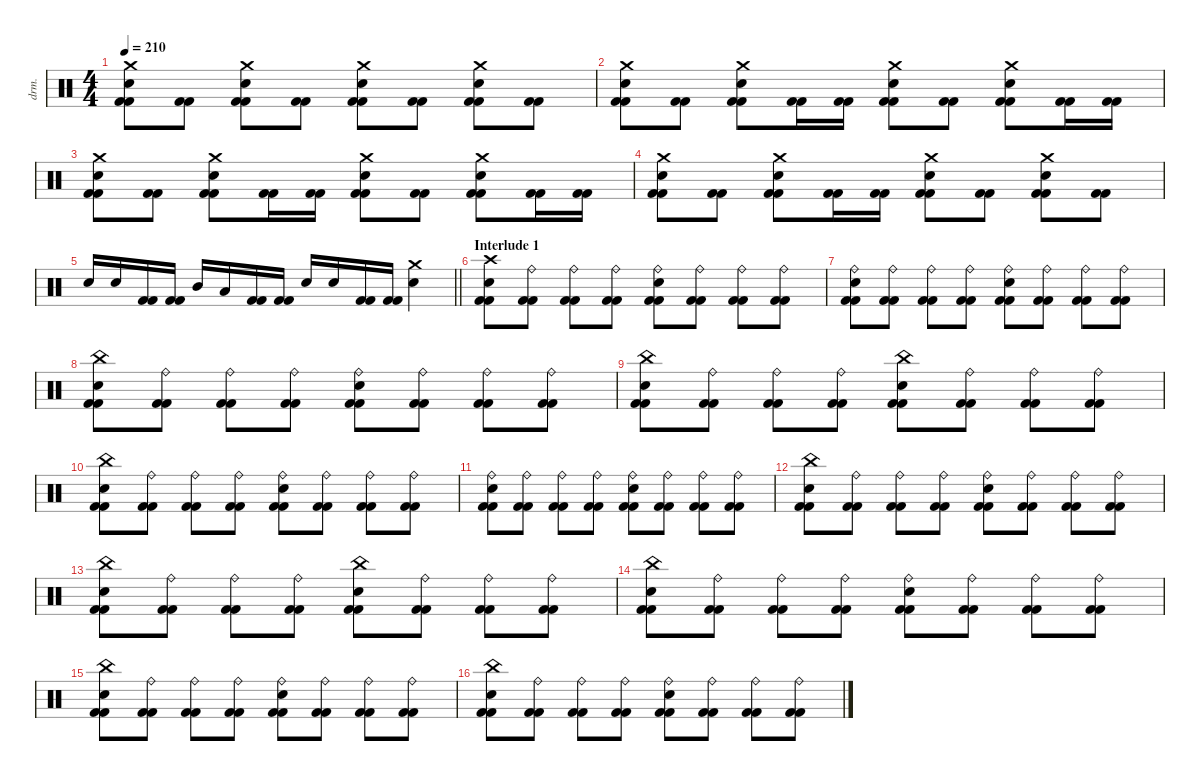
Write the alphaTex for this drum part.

\defaultSystemsLayout 4
\hideDynamics
\bracketExtendMode nobrackets
\otherSystemsTrackNameOrientation horizontal
\track ("Chris Adler" "drm.") {instrument percussion}
\staff {score}
\articulation defaults
\ts (4 4)
\tempo 210
\clef neutral
\ks c
("Crash medium (hit)" "Snare (hit) 2" "Kick (hit) 2" "Kick (hit) 2").8{dy f} ("Kick (hit) 2" "Kick (hit) 2").8 ("Crash medium (hit)" "Snare (hit) 2" "Kick (hit) 2" "Kick (hit) 2").8 ("Kick (hit) 2" "Kick (hit) 2").8 ("Crash medium (hit)" "Snare (hit) 2" "Kick (hit) 2" "Kick (hit) 2").8 ("Kick (hit) 2" "Kick (hit) 2").8 ("Crash medium (hit)" "Snare (hit) 2" "Kick (hit) 2" "Kick (hit) 2").8 ("Kick (hit) 2" "Kick (hit) 2").8 |
("Crash medium (hit)" "Snare (hit) 2" "Kick (hit) 2" "Kick (hit) 2").8 ("Kick (hit) 2" "Kick (hit) 2").8 ("Crash medium (hit)" "Snare (hit) 2" "Kick (hit) 2" "Kick (hit) 2").8 ("Kick (hit) 2" "Kick (hit) 2").16 ("Kick (hit) 2" "Kick (hit) 2").16 ("Crash medium (hit)" "Snare (hit) 2" "Kick (hit) 2" "Kick (hit) 2").8 ("Kick (hit) 2" "Kick (hit) 2").8 ("Crash medium (hit)" "Snare (hit) 2" "Kick (hit) 2" "Kick (hit) 2").8 ("Kick (hit) 2" "Kick (hit) 2").16 ("Kick (hit) 2" "Kick (hit) 2").16 |
("Crash medium (hit)" "Snare (hit) 2" "Kick (hit) 2" "Kick (hit) 2").8 ("Kick (hit) 2" "Kick (hit) 2").8 ("Crash medium (hit)" "Snare (hit) 2" "Kick (hit) 2" "Kick (hit) 2").8 ("Kick (hit) 2" "Kick (hit) 2").16 ("Kick (hit) 2" "Kick (hit) 2").16 ("Crash medium (hit)" "Snare (hit) 2" "Kick (hit) 2" "Kick (hit) 2").8 ("Kick (hit) 2" "Kick (hit) 2").8 ("Crash medium (hit)" "Snare (hit) 2" "Kick (hit) 2" "Kick (hit) 2").8 ("Kick (hit) 2" "Kick (hit) 2").16 ("Kick (hit) 2" "Kick (hit) 2").16 |
("Crash medium (hit)" "Snare (hit) 2" "Kick (hit) 2" "Kick (hit) 2").8 ("Kick (hit) 2" "Kick (hit) 2").8 ("Crash medium (hit)" "Snare (hit) 2" "Kick (hit) 2" "Kick (hit) 2").8 ("Kick (hit) 2" "Kick (hit) 2").16 ("Kick (hit) 2" "Kick (hit) 2").16 ("Crash medium (hit)" "Snare (hit) 2" "Kick (hit) 2" "Kick (hit) 2").8 ("Kick (hit) 2" "Kick (hit) 2").8 ("Crash medium (hit)" "Snare (hit) 2" "Kick (hit) 2" "Kick (hit) 2").8 ("Kick (hit) 2" "Kick (hit) 2").8 |
\barLineRight lightlight "Snare (hit) 2".16 "Snare (hit) 2".16
("Kick (hit) 2" "Kick (hit) 2").16 ("Kick (hit) 2" "Kick (hit) 2").16 "Mid Tom (hit)".16 "Low Tom (hit)".16 ("Kick (hit) 2" "Kick (hit) 2").16 ("Kick (hit) 2" "Kick (hit) 2").16 "Snare (hit) 2".16 "Snare (hit) 2".16 ("Kick (hit) 2" "Kick (hit) 2").16 ("Kick (hit) 2" "Kick (hit) 2").16 ("Crash medium (hit)" "Snare (hit) 2").4 |
\section ("" "Interlude 1")
("Crash high (hit)" "Snare (hit) 2" "Kick (hit) 2" "Kick (hit) 2").8 ("Ride (bell)" "Kick (hit) 2" "Kick (hit) 2").8 ("Ride (bell)" "Kick (hit) 2" "Kick (hit) 2").8 ("Ride (bell)" "Kick (hit) 2" "Kick (hit) 2").8 ("Ride (bell)" "Snare (hit) 2" "Kick (hit) 2" "Kick (hit) 2").8 ("Ride (bell)" "Kick (hit) 2" "Kick (hit) 2").8 ("Ride (bell)" "Kick (hit) 2" "Kick (hit) 2").8 ("Ride (bell)" "Kick (hit) 2" "Kick (hit) 2").8 |
("Ride (bell)" "Snare (hit) 2" "Kick (hit) 2" "Kick (hit) 2").8 ("Ride (bell)" "Kick (hit) 2" "Kick (hit) 2").8 ("Ride (bell)" "Kick (hit) 2" "Kick (hit) 2").8 ("Ride (bell)" "Kick (hit) 2" "Kick (hit) 2").8 ("Ride (bell)" "Snare (hit) 2" "Kick (hit) 2" "Kick (hit) 2").8 ("Ride (bell)" "Kick (hit) 2" "Kick (hit) 2").8 ("Ride (bell)" "Kick (hit) 2" "Kick (hit) 2").8 ("Ride (bell)" "Kick (hit) 2" "Kick (hit) 2").8 |
("China (hit)" "Snare (hit) 2" "Kick (hit) 2" "Kick (hit) 2").8 ("Ride (bell)" "Kick (hit) 2" "Kick (hit) 2").8 ("Ride (bell)" "Kick (hit) 2" "Kick (hit) 2").8 ("Ride (bell)" "Kick (hit) 2" "Kick (hit) 2").8 ("Ride (bell)" "Snare (hit) 2" "Kick (hit) 2" "Kick (hit) 2").8 ("Ride (bell)" "Kick (hit) 2" "Kick (hit) 2").8 ("Ride (bell)" "Kick (hit) 2" "Kick (hit) 2").8 ("Ride (bell)" "Kick (hit) 2" "Kick (hit) 2").8 |
("China (hit)" "Snare (hit) 2" "Kick (hit) 2" "Kick (hit) 2").8 ("Ride (bell)" "Kick (hit) 2" "Kick (hit) 2").8 ("Ride (bell)" "Kick (hit) 2" "Kick (hit) 2").8 ("Ride (bell)" "Kick (hit) 2" "Kick (hit) 2").8 ("China (hit)" "Snare (hit) 2" "Kick (hit) 2" "Kick (hit) 2").8 ("Ride (bell)" "Kick (hit) 2" "Kick (hit) 2").8 ("Ride (bell)" "Kick (hit) 2" "Kick (hit) 2").8 ("Ride (bell)" "Kick (hit) 2" "Kick (hit) 2").8 |
("China (hit)" "Snare (hit) 2" "Kick (hit) 2" "Kick (hit) 2").8 ("Ride (bell)" "Kick (hit) 2" "Kick (hit) 2").8 ("Ride (bell)" "Kick (hit) 2" "Kick (hit) 2").8 ("Ride (bell)" "Kick (hit) 2" "Kick (hit) 2").8 ("Ride (bell)" "Snare (hit) 2" "Kick (hit) 2" "Kick (hit) 2").8 ("Ride (bell)" "Kick (hit) 2" "Kick (hit) 2").8 ("Ride (bell)" "Kick (hit) 2" "Kick (hit) 2").8 ("Ride (bell)" "Kick (hit) 2" "Kick (hit) 2").8 |
("Ride (bell)" "Snare (hit) 2" "Kick (hit) 2" "Kick (hit) 2").8 ("Ride (bell)" "Kick (hit) 2" "Kick (hit) 2").8 ("Ride (bell)" "Kick (hit) 2" "Kick (hit) 2").8 ("Ride (bell)" "Kick (hit) 2" "Kick (hit) 2").8 ("Ride (bell)" "Snare (hit) 2" "Kick (hit) 2" "Kick (hit) 2").8 ("Ride (bell)" "Kick (hit) 2" "Kick (hit) 2").8 ("Ride (bell)" "Kick (hit) 2" "Kick (hit) 2").8 ("Ride (bell)" "Kick (hit) 2" "Kick (hit) 2").8 |
("China (hit)" "Snare (hit) 2" "Kick (hit) 2" "Kick (hit) 2").8 ("Ride (bell)" "Kick (hit) 2" "Kick (hit) 2").8 ("Ride (bell)" "Kick (hit) 2" "Kick (hit) 2").8 ("Ride (bell)" "Kick (hit) 2" "Kick (hit) 2").8 ("Ride (bell)" "Snare (hit) 2" "Kick (hit) 2" "Kick (hit) 2").8 ("Ride (bell)" "Kick (hit) 2" "Kick (hit) 2").8 ("Ride (bell)" "Kick (hit) 2" "Kick (hit) 2").8 ("Ride (bell)" "Kick (hit) 2" "Kick (hit) 2").8 |
("China (hit)" "Snare (hit) 2" "Kick (hit) 2" "Kick (hit) 2").8 ("Ride (bell)" "Kick (hit) 2" "Kick (hit) 2").8 ("Ride (bell)" "Kick (hit) 2" "Kick (hit) 2").8 ("Ride (bell)" "Kick (hit) 2" "Kick (hit) 2").8 ("China (hit)" "Snare (hit) 2" "Kick (hit) 2" "Kick (hit) 2").8 ("Ride (bell)" "Kick (hit) 2" "Kick (hit) 2").8 ("Ride (bell)" "Kick (hit) 2" "Kick (hit) 2").8 ("Ride (bell)" "Kick (hit) 2" "Kick (hit) 2").8 |
("China (hit)" "Snare (hit) 2" "Kick (hit) 2" "Kick (hit) 2").8 ("Ride (bell)" "Kick (hit) 2" "Kick (hit) 2").8 ("Ride (bell)" "Kick (hit) 2" "Kick (hit) 2").8 ("Ride (bell)" "Kick (hit) 2" "Kick (hit) 2").8 ("Ride (bell)" "Snare (hit) 2" "Kick (hit) 2" "Kick (hit) 2").8 ("Ride (bell)" "Kick (hit) 2" "Kick (hit) 2").8 ("Ride (bell)" "Kick (hit) 2" "Kick (hit) 2").8 ("Ride (bell)" "Kick (hit) 2" "Kick (hit) 2").8 |
("China (hit)" "Snare (hit) 2" "Kick (hit) 2" "Kick (hit) 2").8 ("Ride (bell)" "Kick (hit) 2" "Kick (hit) 2").8 ("Ride (bell)" "Kick (hit) 2" "Kick (hit) 2").8 ("Ride (bell)" "Kick (hit) 2" "Kick (hit) 2").8 ("Ride (bell)" "Snare (hit) 2" "Kick (hit) 2" "Kick (hit) 2").8 ("Ride (bell)" "Kick (hit) 2" "Kick (hit) 2").8 ("Ride (bell)" "Kick (hit) 2" "Kick (hit) 2").8 ("Ride (bell)" "Kick (hit) 2" "Kick (hit) 2").8 |
("China (hit)" "Snare (hit) 2" "Kick (hit) 2" "Kick (hit) 2").8 ("Ride (bell)" "Kick (hit) 2" "Kick (hit) 2").8 ("Ride (bell)" "Kick (hit) 2" "Kick (hit) 2").8 ("Ride (bell)" "Kick (hit) 2" "Kick (hit) 2").8 ("Ride (bell)" "Snare (hit) 2" "Kick (hit) 2" "Kick (hit) 2").8 ("Ride (bell)" "Kick (hit) 2" "Kick (hit) 2").8 ("Ride (bell)" "Kick (hit) 2" "Kick (hit) 2").8 ("Ride (bell)" "Kick (hit) 2" "Kick (hit) 2").8
